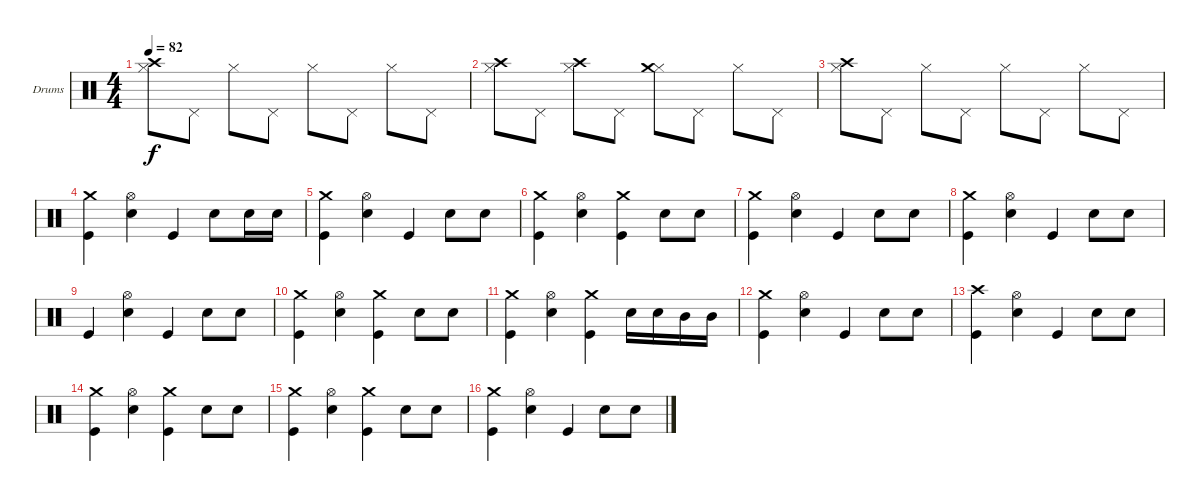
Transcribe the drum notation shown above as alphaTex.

\bracketExtendMode groupsimilarinstruments
\firstSystemTrackNameOrientation horizontal
\otherSystemsTrackNameOrientation horizontal
\track ("Drumkit" "Drums") {instrument percussion}
\staff {score}
\articulation defaults
\ts (4 4)
\tempo 82
\clef neutral
\ks c
("Hi-Hat (closed)" "Crash high (hit)").8{dy f} "Pedal Hi-Hat (hit)".8 "Hi-Hat (closed)".8 "Pedal Hi-Hat (hit)".8 "Hi-Hat (closed)".8 "Pedal Hi-Hat (hit)".8 "Hi-Hat (closed)".8 "Pedal Hi-Hat (hit)".8 |
("Hi-Hat (closed)" "Crash high (hit)").8 "Pedal Hi-Hat (hit)".8 ("Hi-Hat (closed)" "Crash high (hit)").8 "Pedal Hi-Hat (hit)".8 ("Hi-Hat (closed)" "Crash medium (hit)").8 "Pedal Hi-Hat (hit)".8 "Hi-Hat (closed)".8 "Pedal Hi-Hat (hit)".8 |
("Hi-Hat (closed)" "Crash high (hit)").8 "Pedal Hi-Hat (hit)".8 "Hi-Hat (closed)".8 "Pedal Hi-Hat (hit)".8 "Hi-Hat (closed)".8 "Pedal Hi-Hat (hit)".8 "Hi-Hat (closed)".8 "Pedal Hi-Hat (hit)".8 |
("Crash medium (hit)" "Kick (hit)").4 ("Hi-Hat (open)" "Snare (hit) 2").4 "Kick (hit)".4 "Snare (hit) 2".8 "Snare (hit) 2".16 "Snare (hit) 2".16 |
("Crash medium (hit)" "Kick (hit)").4 ("Hi-Hat (open)" "Snare (hit) 2").4 "Kick (hit)".4 "Snare (hit) 2".8 "Snare (hit) 2".8 |
("Crash medium (hit)" "Kick (hit)").4 ("Hi-Hat (open)" "Snare (hit) 2").4 ("Crash medium (hit)" "Kick (hit)").4 "Snare (hit) 2".8 "Snare (hit) 2".8 |
("Crash medium (hit)" "Kick (hit)").4 ("Hi-Hat (open)" "Snare (hit) 2").4 "Kick (hit)".4 "Snare (hit) 2".8 "Snare (hit) 2".8 |
("Crash medium (hit)" "Kick (hit)").4 ("Hi-Hat (open)" "Snare (hit) 2").4 "Kick (hit)".4 "Snare (hit) 2".8 "Snare (hit) 2".8 |
"Kick (hit)".4 ("Hi-Hat (open)" "Snare (hit) 2").4 "Kick (hit)".4 "Snare (hit) 2".8 "Snare (hit) 2".8 |
("Crash medium (hit)" "Kick (hit)").4 ("Hi-Hat (open)" "Snare (hit) 2").4 ("Crash medium (hit)" "Kick (hit)").4 "Snare (hit) 2".8 "Snare (hit) 2".8 |
("Crash medium (hit)" "Kick (hit)").4 ("Hi-Hat (open)" "Snare (hit) 2").4 ("Crash medium (hit)" "Kick (hit)").4 "Snare (hit) 2".16 "Snare (hit) 2".16 "Mid Tom (hit)".16 "Mid Tom (hit)".16 |
("Crash medium (hit)" "Kick (hit)").4 ("Hi-Hat (open)" "Snare (hit) 2").4 "Kick (hit)".4 "Snare (hit) 2".8 "Snare (hit) 2".8 |
("Crash high (hit)" "Kick (hit)").4 ("Hi-Hat (open)" "Snare (hit) 2").4 "Kick (hit)".4 "Snare (hit) 2".8 "Snare (hit) 2".8 |
("Crash medium (hit)" "Kick (hit)").4 ("Hi-Hat (open)" "Snare (hit) 2").4 ("Crash medium (hit)" "Kick (hit)").4 "Snare (hit) 2".8 "Snare (hit) 2".8 |
("Crash medium (hit)" "Kick (hit)").4 ("Hi-Hat (open)" "Snare (hit) 2").4 ("Crash medium (hit)" "Kick (hit)").4 "Snare (hit) 2".8 "Snare (hit) 2".8 |
("Crash medium (hit)" "Kick (hit)").4 ("Hi-Hat (open)" "Snare (hit) 2").4 "Kick (hit)".4 "Snare (hit) 2".8 "Snare (hit) 2".8
